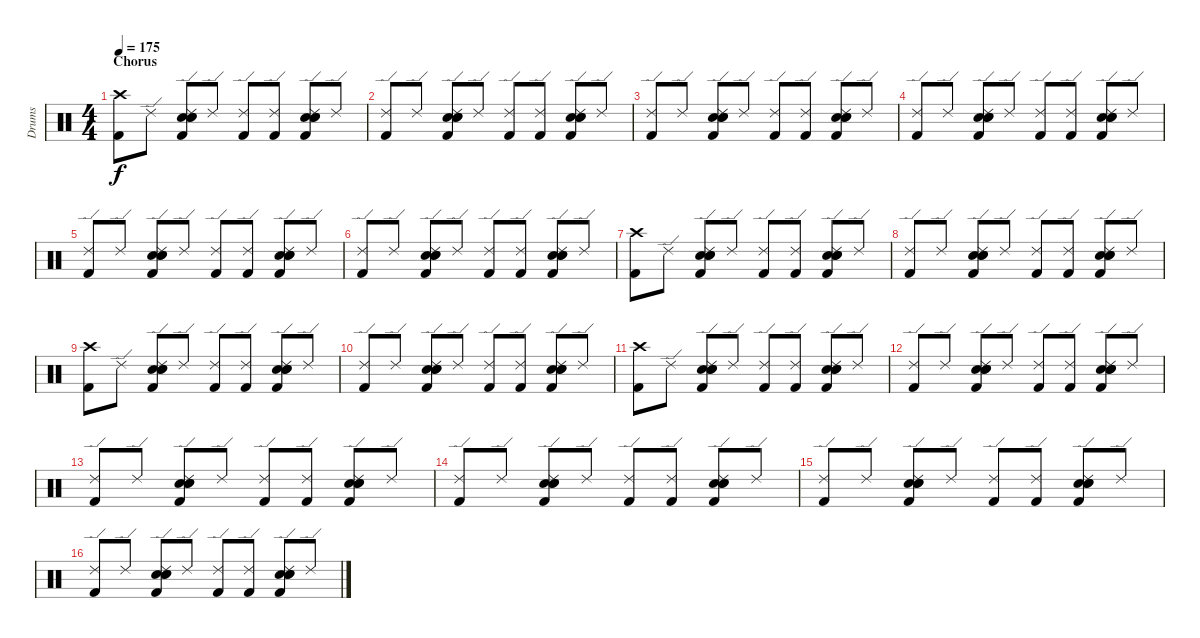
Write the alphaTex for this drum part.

\track ("Drums" "Drums") {instrument percussion}
\staff {score}
\articulation defaults
\ts (4 4)
\section ("" "Chorus")
\tempo 175
\clef neutral
\ks c
("Crash high (hit)" "Kick (hit) 2").8{dy f} "Ride (edge) 2".8 ("Ride (edge) 2" "Electric Snare (hit)" "Electric Snare (hit)" "Snare (hit) 2" "Kick (hit) 2").8 "Ride (edge) 2".8 ("Ride (edge) 2" "Kick (hit) 2").8 ("Ride (edge) 2" "Kick (hit) 2").8 ("Ride (edge) 2" "Electric Snare (hit)" "Electric Snare (hit)" "Snare (hit) 2" "Kick (hit) 2").8 "Ride (edge) 2".8 |
("Ride (edge) 2" "Kick (hit) 2").8 "Ride (edge) 2".8 ("Ride (edge) 2" "Electric Snare (hit)" "Electric Snare (hit)" "Snare (hit) 2" "Kick (hit) 2").8 "Ride (edge) 2".8 ("Ride (edge) 2" "Kick (hit) 2").8 ("Ride (edge) 2" "Kick (hit) 2").8 ("Ride (edge) 2" "Electric Snare (hit)" "Electric Snare (hit)" "Snare (hit) 2" "Kick (hit) 2").8 "Ride (edge) 2".8 |
("Ride (edge) 2" "Kick (hit) 2").8 "Ride (edge) 2".8 ("Ride (edge) 2" "Electric Snare (hit)" "Electric Snare (hit)" "Snare (hit) 2" "Kick (hit) 2").8 "Ride (edge) 2".8 ("Ride (edge) 2" "Kick (hit) 2").8 ("Ride (edge) 2" "Kick (hit) 2").8 ("Ride (edge) 2" "Electric Snare (hit)" "Electric Snare (hit)" "Snare (hit) 2" "Kick (hit) 2").8 "Ride (edge) 2".8 |
("Ride (edge) 2" "Kick (hit) 2").8 "Ride (edge) 2".8 ("Ride (edge) 2" "Electric Snare (hit)" "Electric Snare (hit)" "Snare (hit) 2" "Kick (hit) 2").8 "Ride (edge) 2".8 ("Ride (edge) 2" "Kick (hit) 2").8 ("Ride (edge) 2" "Kick (hit) 2").8 ("Ride (edge) 2" "Electric Snare (hit)" "Electric Snare (hit)" "Snare (hit) 2" "Kick (hit) 2").8 "Ride (edge) 2".8 |
("Ride (edge) 2" "Kick (hit) 2").8 "Ride (edge) 2".8 ("Ride (edge) 2" "Electric Snare (hit)" "Electric Snare (hit)" "Snare (hit) 2" "Kick (hit) 2").8 "Ride (edge) 2".8 ("Ride (edge) 2" "Kick (hit) 2").8 ("Ride (edge) 2" "Kick (hit) 2").8 ("Ride (edge) 2" "Electric Snare (hit)" "Electric Snare (hit)" "Snare (hit) 2" "Kick (hit) 2").8 "Ride (edge) 2".8 |
("Ride (edge) 2" "Kick (hit) 2").8 "Ride (edge) 2".8 ("Ride (edge) 2" "Electric Snare (hit)" "Electric Snare (hit)" "Snare (hit) 2" "Kick (hit) 2").8 "Ride (edge) 2".8 ("Ride (edge) 2" "Kick (hit) 2").8 ("Ride (edge) 2" "Kick (hit) 2").8 ("Ride (edge) 2" "Electric Snare (hit)" "Electric Snare (hit)" "Snare (hit) 2" "Kick (hit) 2").8 "Ride (edge) 2".8 |
("Crash high (hit)" "Kick (hit) 2").8 "Ride (edge) 2".8 ("Ride (edge) 2" "Electric Snare (hit)" "Electric Snare (hit)" "Snare (hit) 2" "Kick (hit) 2").8 "Ride (edge) 2".8 ("Ride (edge) 2" "Kick (hit) 2").8 ("Ride (edge) 2" "Kick (hit) 2").8 ("Ride (edge) 2" "Electric Snare (hit)" "Electric Snare (hit)" "Snare (hit) 2" "Kick (hit) 2").8 "Ride (edge) 2".8 |
("Ride (edge) 2" "Kick (hit) 2").8 "Ride (edge) 2".8 ("Ride (edge) 2" "Electric Snare (hit)" "Electric Snare (hit)" "Snare (hit) 2" "Kick (hit) 2").8 "Ride (edge) 2".8 ("Ride (edge) 2" "Kick (hit) 2").8 ("Ride (edge) 2" "Kick (hit) 2").8 ("Ride (edge) 2" "Electric Snare (hit)" "Electric Snare (hit)" "Snare (hit) 2" "Kick (hit) 2").8 "Ride (edge) 2".8 |
("Crash high (hit)" "Kick (hit) 2").8 "Ride (edge) 2".8 ("Ride (edge) 2" "Electric Snare (hit)" "Electric Snare (hit)" "Snare (hit) 2" "Kick (hit) 2").8 "Ride (edge) 2".8 ("Ride (edge) 2" "Kick (hit) 2").8 ("Ride (edge) 2" "Kick (hit) 2").8 ("Ride (edge) 2" "Electric Snare (hit)" "Electric Snare (hit)" "Snare (hit) 2" "Kick (hit) 2").8 "Ride (edge) 2".8 |
("Ride (edge) 2" "Kick (hit) 2").8 "Ride (edge) 2".8 ("Ride (edge) 2" "Electric Snare (hit)" "Electric Snare (hit)" "Snare (hit) 2" "Kick (hit) 2").8 "Ride (edge) 2".8 ("Ride (edge) 2" "Kick (hit) 2").8 ("Ride (edge) 2" "Kick (hit) 2").8 ("Ride (edge) 2" "Electric Snare (hit)" "Electric Snare (hit)" "Snare (hit) 2" "Kick (hit) 2").8 "Ride (edge) 2".8 |
("Crash high (hit)" "Kick (hit) 2").8 "Ride (edge) 2".8 ("Ride (edge) 2" "Electric Snare (hit)" "Electric Snare (hit)" "Snare (hit) 2" "Kick (hit) 2").8 "Ride (edge) 2".8 ("Ride (edge) 2" "Kick (hit) 2").8 ("Ride (edge) 2" "Kick (hit) 2").8 ("Ride (edge) 2" "Electric Snare (hit)" "Electric Snare (hit)" "Snare (hit) 2" "Kick (hit) 2").8 "Ride (edge) 2".8 |
("Ride (edge) 2" "Kick (hit) 2").8 "Ride (edge) 2".8 ("Ride (edge) 2" "Electric Snare (hit)" "Electric Snare (hit)" "Snare (hit) 2" "Kick (hit) 2").8 "Ride (edge) 2".8 ("Ride (edge) 2" "Kick (hit) 2").8 ("Ride (edge) 2" "Kick (hit) 2").8 ("Ride (edge) 2" "Electric Snare (hit)" "Electric Snare (hit)" "Snare (hit) 2" "Kick (hit) 2").8 "Ride (edge) 2".8 |
("Ride (edge) 2" "Kick (hit) 2").8 "Ride (edge) 2".8 ("Ride (edge) 2" "Electric Snare (hit)" "Electric Snare (hit)" "Snare (hit) 2" "Kick (hit) 2").8 "Ride (edge) 2".8 ("Ride (edge) 2" "Kick (hit) 2").8 ("Ride (edge) 2" "Kick (hit) 2").8 ("Ride (edge) 2" "Electric Snare (hit)" "Electric Snare (hit)" "Snare (hit) 2" "Kick (hit) 2").8 "Ride (edge) 2".8 |
("Ride (edge) 2" "Kick (hit) 2").8 "Ride (edge) 2".8 ("Ride (edge) 2" "Electric Snare (hit)" "Electric Snare (hit)" "Snare (hit) 2" "Kick (hit) 2").8 "Ride (edge) 2".8 ("Ride (edge) 2" "Kick (hit) 2").8 ("Ride (edge) 2" "Kick (hit) 2").8 ("Ride (edge) 2" "Electric Snare (hit)" "Electric Snare (hit)" "Snare (hit) 2" "Kick (hit) 2").8 "Ride (edge) 2".8 |
("Ride (edge) 2" "Kick (hit) 2").8 "Ride (edge) 2".8 ("Ride (edge) 2" "Electric Snare (hit)" "Electric Snare (hit)" "Snare (hit) 2" "Kick (hit) 2").8 "Ride (edge) 2".8 ("Ride (edge) 2" "Kick (hit) 2").8 ("Ride (edge) 2" "Kick (hit) 2").8 ("Ride (edge) 2" "Electric Snare (hit)" "Electric Snare (hit)" "Snare (hit) 2" "Kick (hit) 2").8 "Ride (edge) 2".8 |
("Ride (edge) 2" "Kick (hit) 2").8 "Ride (edge) 2".8 ("Ride (edge) 2" "Electric Snare (hit)" "Electric Snare (hit)" "Snare (hit) 2" "Kick (hit) 2").8 "Ride (edge) 2".8 ("Ride (edge) 2" "Kick (hit) 2").8 ("Ride (edge) 2" "Kick (hit) 2").8 ("Ride (edge) 2" "Electric Snare (hit)" "Electric Snare (hit)" "Snare (hit) 2" "Kick (hit) 2").8 "Ride (edge) 2".8
